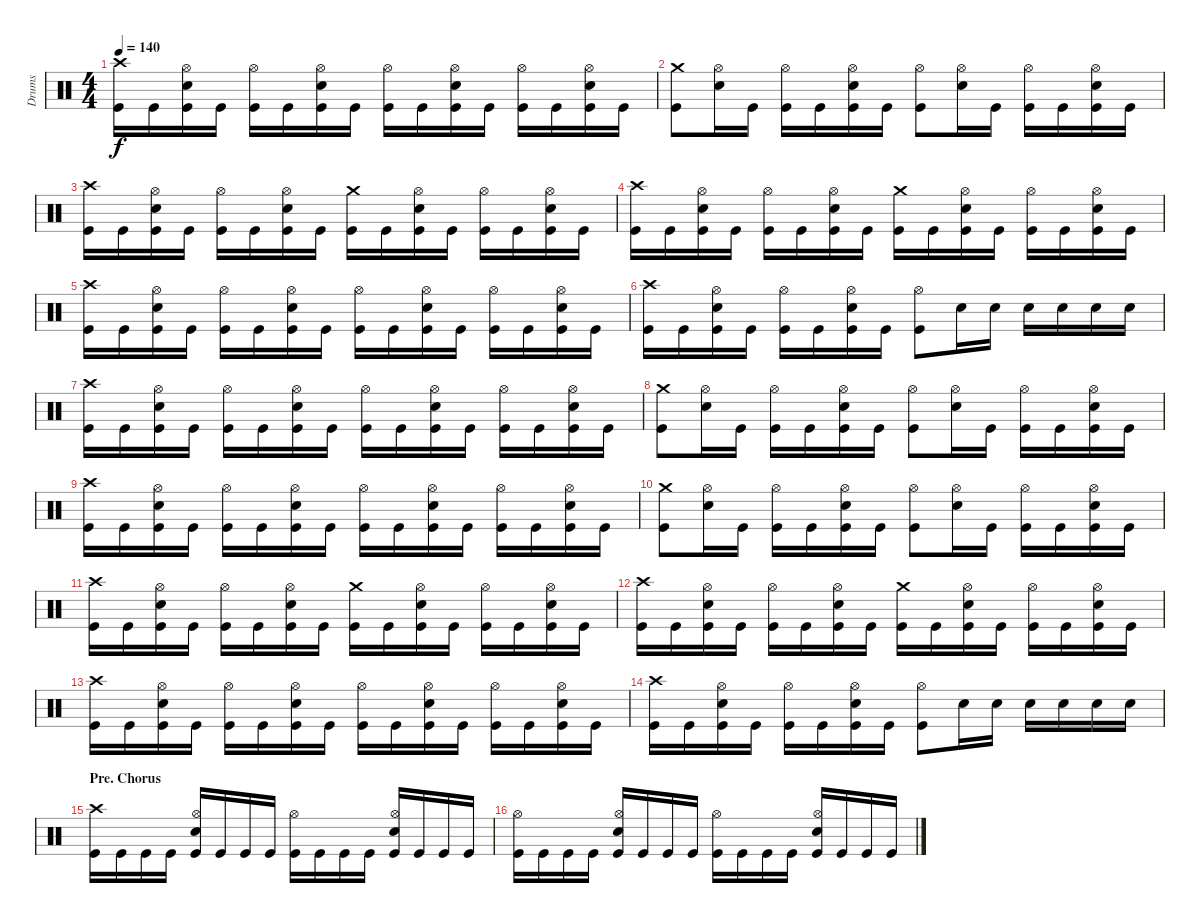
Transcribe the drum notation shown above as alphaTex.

\track ("Drums" "Drums") {instrument percussion}
\staff {score}
\articulation defaults
\ts (4 4)
\tempo 140
\clef neutral
\ks c
("Crash high (hit)" "Kick (hit)").16{dy f} "Kick (hit)".16 ("Hi-Hat (open)" "Electric Snare (hit)" "Kick (hit)").16 "Kick (hit)".16 ("Hi-Hat (open)" "Kick (hit)").16 "Kick (hit)".16 ("Hi-Hat (open)" "Electric Snare (hit)" "Kick (hit)").16 "Kick (hit)".16 ("Hi-Hat (open)" "Kick (hit)").16 "Kick (hit)".16 ("Hi-Hat (open)" "Electric Snare (hit)" "Kick (hit)").16 "Kick (hit)".16 ("Hi-Hat (open)" "Kick (hit)").16 "Kick (hit)".16 ("Hi-Hat (open)" "Electric Snare (hit)" "Kick (hit)").16 "Kick (hit)".16 |
("Crash medium (hit)" "Kick (hit)").8 ("Hi-Hat (open)" "Electric Snare (hit)").16 "Kick (hit)".16 ("Hi-Hat (open)" "Kick (hit)").16 "Kick (hit)".16 ("Hi-Hat (open)" "Electric Snare (hit)" "Kick (hit)").16 "Kick (hit)".16 ("Hi-Hat (open)" "Kick (hit)").8 ("Hi-Hat (open)" "Electric Snare (hit)").16 "Kick (hit)".16 ("Hi-Hat (open)" "Kick (hit)").16 "Kick (hit)".16 ("Hi-Hat (open)" "Electric Snare (hit)" "Kick (hit)").16 "Kick (hit)".16 |
("Crash high (hit)" "Kick (hit)").16 "Kick (hit)".16 ("Hi-Hat (open)" "Electric Snare (hit)" "Kick (hit)").16 "Kick (hit)".16 ("Hi-Hat (open)" "Kick (hit)").16 "Kick (hit)".16 ("Hi-Hat (open)" "Electric Snare (hit)" "Kick (hit)").16 "Kick (hit)".16 ("Crash medium (hit)" "Kick (hit)").16 "Kick (hit)".16 ("Hi-Hat (open)" "Electric Snare (hit)" "Kick (hit)").16 "Kick (hit)".16 ("Hi-Hat (open)" "Kick (hit)").16 "Kick (hit)".16 ("Hi-Hat (open)" "Electric Snare (hit)" "Kick (hit)").16 "Kick (hit)".16 |
("Crash high (hit)" "Kick (hit)").16 "Kick (hit)".16 ("Hi-Hat (open)" "Electric Snare (hit)" "Kick (hit)").16 "Kick (hit)".16 ("Hi-Hat (open)" "Kick (hit)").16 "Kick (hit)".16 ("Hi-Hat (open)" "Electric Snare (hit)" "Kick (hit)").16 "Kick (hit)".16 ("Crash medium (hit)" "Kick (hit)").16 "Kick (hit)".16 ("Hi-Hat (open)" "Electric Snare (hit)" "Kick (hit)").16 "Kick (hit)".16 ("Hi-Hat (open)" "Kick (hit)").16 "Kick (hit)".16 ("Hi-Hat (open)" "Electric Snare (hit)" "Kick (hit)").16 "Kick (hit)".16 |
("Crash high (hit)" "Kick (hit)").16 "Kick (hit)".16 ("Hi-Hat (open)" "Electric Snare (hit)" "Kick (hit)").16 "Kick (hit)".16 ("Hi-Hat (open)" "Kick (hit)").16 "Kick (hit)".16 ("Hi-Hat (open)" "Electric Snare (hit)" "Kick (hit)").16 "Kick (hit)".16 ("Hi-Hat (open)" "Kick (hit)").16 "Kick (hit)".16 ("Hi-Hat (open)" "Electric Snare (hit)" "Kick (hit)").16 "Kick (hit)".16 ("Hi-Hat (open)" "Kick (hit)").16 "Kick (hit)".16 ("Hi-Hat (open)" "Electric Snare (hit)" "Kick (hit)").16 "Kick (hit)".16 |
("Crash high (hit)" "Kick (hit)").16 "Kick (hit)".16 ("Hi-Hat (open)" "Electric Snare (hit)" "Kick (hit)").16 "Kick (hit)".16 ("Hi-Hat (open)" "Kick (hit)").16 "Kick (hit)".16 ("Hi-Hat (open)" "Electric Snare (hit)" "Kick (hit)").16 "Kick (hit)".16 ("Hi-Hat (open)" "Kick (hit)").8 "Electric Snare (hit)".16 "Electric Snare (hit)".16 "Electric Snare (hit)".16 "Electric Snare (hit)".16 "Electric Snare (hit)".16 "Electric Snare (hit)".16 |
("Crash high (hit)" "Kick (hit)").16 "Kick (hit)".16 ("Hi-Hat (open)" "Electric Snare (hit)" "Kick (hit)").16 "Kick (hit)".16 ("Hi-Hat (open)" "Kick (hit)").16 "Kick (hit)".16 ("Hi-Hat (open)" "Electric Snare (hit)" "Kick (hit)").16 "Kick (hit)".16 ("Hi-Hat (open)" "Kick (hit)").16 "Kick (hit)".16 ("Hi-Hat (open)" "Electric Snare (hit)" "Kick (hit)").16 "Kick (hit)".16 ("Hi-Hat (open)" "Kick (hit)").16 "Kick (hit)".16 ("Hi-Hat (open)" "Electric Snare (hit)" "Kick (hit)").16 "Kick (hit)".16 |
("Crash medium (hit)" "Kick (hit)").8 ("Hi-Hat (open)" "Electric Snare (hit)").16 "Kick (hit)".16 ("Hi-Hat (open)" "Kick (hit)").16 "Kick (hit)".16 ("Hi-Hat (open)" "Electric Snare (hit)" "Kick (hit)").16 "Kick (hit)".16 ("Hi-Hat (open)" "Kick (hit)").8 ("Hi-Hat (open)" "Electric Snare (hit)").16 "Kick (hit)".16 ("Hi-Hat (open)" "Kick (hit)").16 "Kick (hit)".16 ("Hi-Hat (open)" "Electric Snare (hit)" "Kick (hit)").16 "Kick (hit)".16 |
("Crash high (hit)" "Kick (hit)").16 "Kick (hit)".16 ("Hi-Hat (open)" "Electric Snare (hit)" "Kick (hit)").16 "Kick (hit)".16 ("Hi-Hat (open)" "Kick (hit)").16 "Kick (hit)".16 ("Hi-Hat (open)" "Electric Snare (hit)" "Kick (hit)").16 "Kick (hit)".16 ("Hi-Hat (open)" "Kick (hit)").16 "Kick (hit)".16 ("Hi-Hat (open)" "Electric Snare (hit)" "Kick (hit)").16 "Kick (hit)".16 ("Hi-Hat (open)" "Kick (hit)").16 "Kick (hit)".16 ("Hi-Hat (open)" "Electric Snare (hit)" "Kick (hit)").16 "Kick (hit)".16 |
("Crash medium (hit)" "Kick (hit)").8 ("Hi-Hat (open)" "Electric Snare (hit)").16 "Kick (hit)".16 ("Hi-Hat (open)" "Kick (hit)").16 "Kick (hit)".16 ("Hi-Hat (open)" "Electric Snare (hit)" "Kick (hit)").16 "Kick (hit)".16 ("Hi-Hat (open)" "Kick (hit)").8 ("Hi-Hat (open)" "Electric Snare (hit)").16 "Kick (hit)".16 ("Hi-Hat (open)" "Kick (hit)").16 "Kick (hit)".16 ("Hi-Hat (open)" "Electric Snare (hit)" "Kick (hit)").16 "Kick (hit)".16 |
("Crash high (hit)" "Kick (hit)").16 "Kick (hit)".16 ("Hi-Hat (open)" "Electric Snare (hit)" "Kick (hit)").16 "Kick (hit)".16 ("Hi-Hat (open)" "Kick (hit)").16 "Kick (hit)".16 ("Hi-Hat (open)" "Electric Snare (hit)" "Kick (hit)").16 "Kick (hit)".16 ("Crash medium (hit)" "Kick (hit)").16 "Kick (hit)".16 ("Hi-Hat (open)" "Electric Snare (hit)" "Kick (hit)").16 "Kick (hit)".16 ("Hi-Hat (open)" "Kick (hit)").16 "Kick (hit)".16 ("Hi-Hat (open)" "Electric Snare (hit)" "Kick (hit)").16 "Kick (hit)".16 |
("Crash high (hit)" "Kick (hit)").16 "Kick (hit)".16 ("Hi-Hat (open)" "Electric Snare (hit)" "Kick (hit)").16 "Kick (hit)".16 ("Hi-Hat (open)" "Kick (hit)").16 "Kick (hit)".16 ("Hi-Hat (open)" "Electric Snare (hit)" "Kick (hit)").16 "Kick (hit)".16 ("Crash medium (hit)" "Kick (hit)").16 "Kick (hit)".16 ("Hi-Hat (open)" "Electric Snare (hit)" "Kick (hit)").16 "Kick (hit)".16 ("Hi-Hat (open)" "Kick (hit)").16 "Kick (hit)".16 ("Hi-Hat (open)" "Electric Snare (hit)" "Kick (hit)").16 "Kick (hit)".16 |
("Crash high (hit)" "Kick (hit)").16 "Kick (hit)".16 ("Hi-Hat (open)" "Electric Snare (hit)" "Kick (hit)").16 "Kick (hit)".16 ("Hi-Hat (open)" "Kick (hit)").16 "Kick (hit)".16 ("Hi-Hat (open)" "Electric Snare (hit)" "Kick (hit)").16 "Kick (hit)".16 ("Hi-Hat (open)" "Kick (hit)").16 "Kick (hit)".16 ("Hi-Hat (open)" "Electric Snare (hit)" "Kick (hit)").16 "Kick (hit)".16 ("Hi-Hat (open)" "Kick (hit)").16 "Kick (hit)".16 ("Hi-Hat (open)" "Electric Snare (hit)" "Kick (hit)").16 "Kick (hit)".16 |
("Crash high (hit)" "Kick (hit)").16 "Kick (hit)".16 ("Hi-Hat (open)" "Electric Snare (hit)" "Kick (hit)").16 "Kick (hit)".16 ("Hi-Hat (open)" "Kick (hit)").16 "Kick (hit)".16 ("Hi-Hat (open)" "Electric Snare (hit)" "Kick (hit)").16 "Kick (hit)".16 ("Hi-Hat (open)" "Kick (hit)").8 "Electric Snare (hit)".16 "Electric Snare (hit)".16 "Electric Snare (hit)".16 "Electric Snare (hit)".16 "Electric Snare (hit)".16 "Electric Snare (hit)".16 |
\section ("" "Pre. Chorus")
("Crash high (hit)" "Kick (hit)").16 "Kick (hit)".16 "Kick (hit)".16 "Kick (hit)".16 ("Hi-Hat (open)" "Electric Snare (hit)" "Kick (hit)").16 "Kick (hit)".16 "Kick (hit)".16 "Kick (hit)".16 ("Hi-Hat (open)" "Kick (hit)").16 "Kick (hit)".16 "Kick (hit)".16 "Kick (hit)".16 ("Hi-Hat (open)" "Electric Snare (hit)" "Kick (hit)").16 "Kick (hit)".16 "Kick (hit)".16 "Kick (hit)".16 |
("Hi-Hat (open)" "Kick (hit)").16 "Kick (hit)".16 "Kick (hit)".16 "Kick (hit)".16 ("Hi-Hat (open)" "Electric Snare (hit)" "Kick (hit)").16 "Kick (hit)".16 "Kick (hit)".16 "Kick (hit)".16 ("Hi-Hat (open)" "Kick (hit)").16 "Kick (hit)".16 "Kick (hit)".16 "Kick (hit)".16 ("Hi-Hat (open)" "Electric Snare (hit)" "Kick (hit)").16 "Kick (hit)".16 "Kick (hit)".16 "Kick (hit)".16
